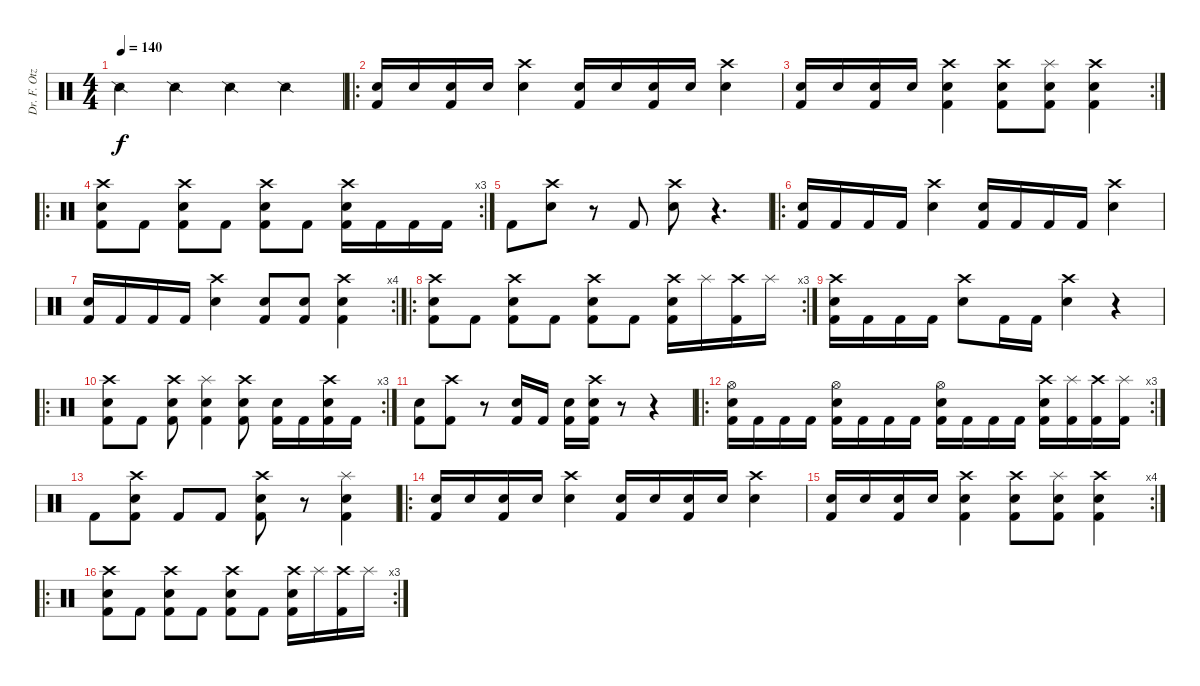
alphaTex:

\track ("Dr. F. Otze" "Dr. F. Otz") {instrument percussion}
\staff {score}
\articulation defaults
\ts (4 4)
\tempo 140
\clef neutral
\ks c "Snare (side stick) 2".4{dy f} "Snare (side stick) 2".4 "Snare (side stick) 2".4 "Snare (side stick) 2".4
|
\ro
("Snare (hit) 2" "Kick (hit) 2").16 "Snare (hit) 2".16 ("Snare (hit) 2" "Kick (hit) 2").16 "Snare (hit) 2".16 ("Crash high (hit)" "Snare (hit) 2").4 ("Snare (hit) 2" "Kick (hit) 2").16 "Snare (hit) 2".16 ("Snare (hit) 2" "Kick (hit) 2").16 "Snare (hit) 2".16 ("Crash high (hit)" "Snare (hit) 2").4 |
\rc 2
("Snare (hit) 2" "Kick (hit) 2").16 "Snare (hit) 2".16 ("Snare (hit) 2" "Kick (hit) 2").16 "Snare (hit) 2".16 ("Crash high (hit)" "Snare (hit) 2" "Kick (hit) 2").4 ("Crash high (hit)" "Snare (hit) 2" "Kick (hit) 2").8 ("Splash (hit)" "Snare (hit) 2" "Kick (hit) 2").8 ("Crash high (hit)" "Snare (hit) 2" "Kick (hit) 2").4 |
\ro
\rc 3
("Crash high (hit)" "Snare (hit) 2" "Kick (hit) 2").8 "Kick (hit) 2".8 ("Crash high (hit)" "Snare (hit) 2" "Kick (hit) 2").8 "Kick (hit) 2".8 ("Crash high (hit)" "Snare (hit) 2" "Kick (hit) 2").8 "Kick (hit) 2".8 ("Crash high (hit)" "Snare (hit) 2" "Kick (hit) 2").16 "Kick (hit) 2".16 "Kick (hit) 2".16 "Kick (hit) 2".16 |
"Kick (hit) 2".8 ("Crash high (hit)" "Snare (hit) 2").8 r.8 "Kick (hit) 2".8 ("Crash high (hit)" "Snare (hit) 2").8 r.4{d} |
\ro
("Snare (hit) 2" "Kick (hit) 2").16 "Kick (hit) 2".16 "Kick (hit) 2".16 "Kick (hit) 2".16 ("Crash high (hit)" "Snare (hit) 2").4 ("Snare (hit) 2" "Kick (hit) 2").16 "Kick (hit) 2".16 "Kick (hit) 2".16 "Kick (hit) 2".16 ("Crash high (hit)" "Snare (hit) 2").4 |
\rc 4
("Snare (hit) 2" "Kick (hit) 2").16 "Kick (hit) 2".16 "Kick (hit) 2".16 "Kick (hit) 2".16 ("Crash high (hit)" "Snare (hit) 2").4 ("Snare (hit) 2" "Kick (hit) 2").8 ("Snare (hit) 2" "Kick (hit) 2").8 ("Crash high (hit)" "Snare (hit) 2" "Kick (hit) 2").4 |
\ro
\rc 3
("Crash high (hit)" "Snare (hit) 2" "Kick (hit) 2").8 "Kick (hit) 2".8 ("Crash high (hit)" "Snare (hit) 2" "Kick (hit) 2").8 "Kick (hit) 2".8 ("Crash high (hit)" "Snare (hit) 2" "Kick (hit) 2").8 "Kick (hit) 2".8 ("Crash high (hit)" "Snare (hit) 2" "Kick (hit) 2").16 "Splash (hit)".16 ("Crash high (hit)" "Kick (hit) 2").16 "Splash (hit)".16 |
("Crash high (hit)" "Snare (hit) 2" "Kick (hit) 2").16 "Kick (hit) 2".16 "Kick (hit) 2".16 "Kick (hit) 2".16 ("Crash high (hit)" "Snare (hit) 2").8 "Kick (hit) 2".16 "Kick (hit) 2".16 ("Crash high (hit)" "Snare (hit) 2").4 r.4 |
\ro
\rc 3
("Crash high (hit)" "Snare (hit) 2" "Kick (hit) 2").8 "Kick (hit) 2".8 ("Crash high (hit)" "Snare (hit) 2" "Kick (hit) 2").8 ("Splash (hit)" "Snare (hit) 2" "Kick (hit) 2").4 ("Crash high (hit)" "Snare (hit) 2" "Kick (hit) 2").8 ("Snare (hit) 2" "Kick (hit) 2").16 "Kick (hit) 2".16 ("Crash high (hit)" "Snare (hit) 2" "Kick (hit) 2").16 "Kick (hit) 2".16 |
("Snare (hit) 2" "Kick (hit) 2").8 ("Crash high (hit)" "Kick (hit) 2").8 r.8 ("Snare (hit) 2" "Kick (hit) 2").16 "Kick (hit) 2".16 ("Snare (hit) 2" "Kick (hit) 2").16 ("Crash high (hit)" "Snare (hit) 2" "Kick (hit) 2").16 r.8 r.4 |
\ro
\rc 3
("Hi-Hat (open)" "Snare (hit) 2" "Kick (hit) 2").16 "Kick (hit) 2".16 "Kick (hit) 2".16 "Kick (hit) 2".16 ("Hi-Hat (open)" "Snare (hit) 2" "Kick (hit) 2").16 "Kick (hit) 2".16 "Kick (hit) 2".16 "Kick (hit) 2".16 ("Hi-Hat (open)" "Snare (hit) 2" "Kick (hit) 2").16 "Kick (hit) 2".16 "Kick (hit) 2".16 "Kick (hit) 2".16 ("Crash high (hit)" "Snare (hit) 2" "Kick (hit) 2").16 ("Splash (hit)" "Kick (hit) 2").16 ("Crash high (hit)" "Kick (hit) 2").16 ("Splash (hit)" "Kick (hit) 2").16 |
"Kick (hit) 2".8 ("Crash high (hit)" "Snare (hit) 2" "Kick (hit) 2").8 "Kick (hit) 2".8 "Kick (hit) 2".8 ("Crash high (hit)" "Snare (hit) 2" "Kick (hit) 2").8 r.8 ("Splash (hit)" "Snare (hit) 2" "Kick (hit) 2").4 |
\ro
("Snare (hit) 2" "Kick (hit) 2").16 "Snare (hit) 2".16 ("Snare (hit) 2" "Kick (hit) 2").16 "Snare (hit) 2".16 ("Crash high (hit)" "Snare (hit) 2").4 ("Snare (hit) 2" "Kick (hit) 2").16 "Snare (hit) 2".16 ("Snare (hit) 2" "Kick (hit) 2").16 "Snare (hit) 2".16 ("Crash high (hit)" "Snare (hit) 2").4 |
\rc 4
("Snare (hit) 2" "Kick (hit) 2").16 "Snare (hit) 2".16 ("Snare (hit) 2" "Kick (hit) 2").16 "Snare (hit) 2".16 ("Crash high (hit)" "Snare (hit) 2" "Kick (hit) 2").4 ("Crash high (hit)" "Snare (hit) 2" "Kick (hit) 2").8 ("Splash (hit)" "Snare (hit) 2" "Kick (hit) 2").8 ("Crash high (hit)" "Snare (hit) 2" "Kick (hit) 2").4 |
\ro
\rc 3
("Crash high (hit)" "Snare (hit) 2" "Kick (hit) 2").8 "Kick (hit) 2".8 ("Crash high (hit)" "Snare (hit) 2" "Kick (hit) 2").8 "Kick (hit) 2".8 ("Crash high (hit)" "Snare (hit) 2" "Kick (hit) 2").8 "Kick (hit) 2".8 ("Crash high (hit)" "Snare (hit) 2" "Kick (hit) 2").16 "Splash (hit)".16 ("Crash high (hit)" "Kick (hit) 2").16 "Splash (hit)".16
